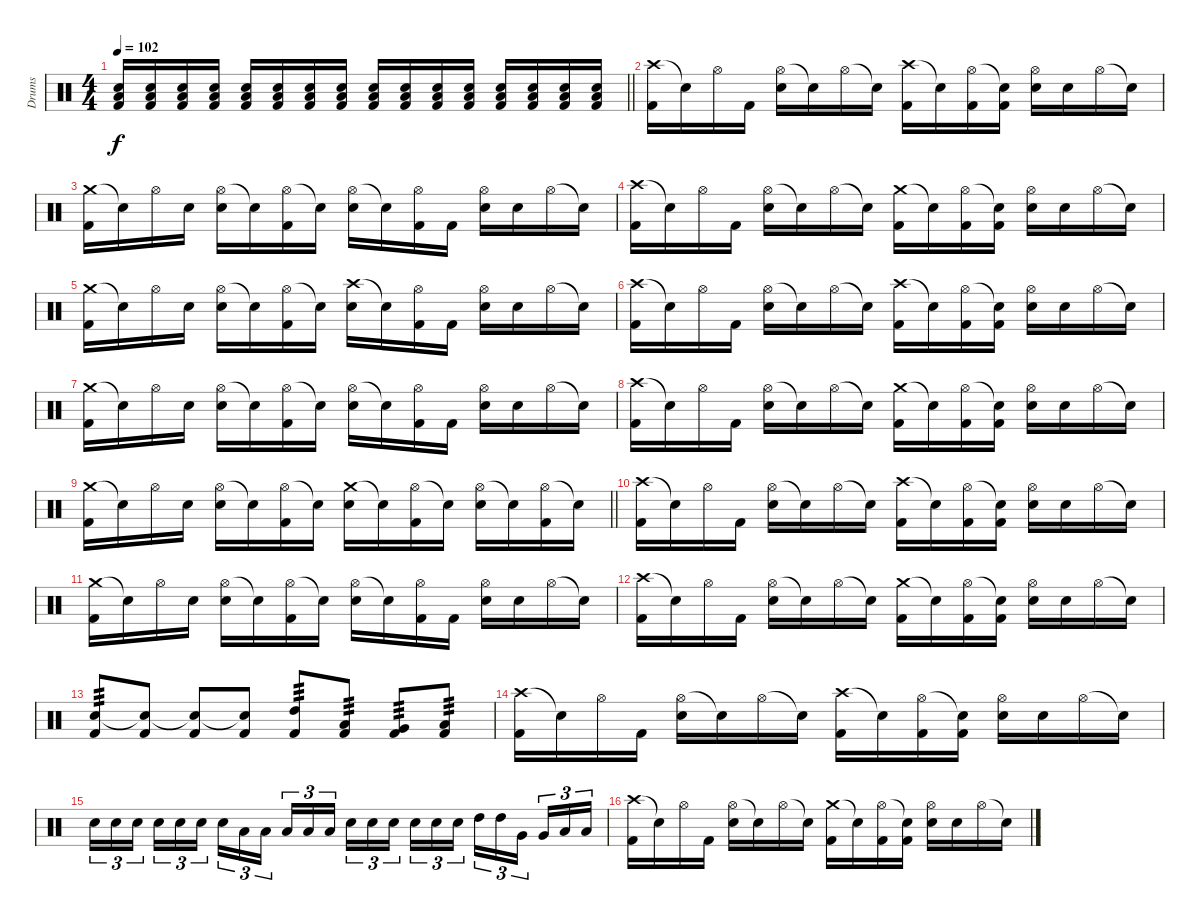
\track ("Drums" "Drums") {instrument percussion}
\staff {score}
\articulation defaults
\ts (4 4)
\tempo 102
\clef neutral
\barLineRight lightlight
\ks c
("Electric Snare (hit)" "Low Floor Tom (hit)" "Kick (hit) 2").16{dy f} ("Electric Snare (hit)" "Low Floor Tom (hit)" "Kick (hit) 2").16 ("Electric Snare (hit)" "Low Floor Tom (hit)" "Kick (hit) 2").16 ("Electric Snare (hit)" "Low Floor Tom (hit)" "Kick (hit) 2").16 ("Electric Snare (hit)" "Low Floor Tom (hit)" "Kick (hit) 2").16 ("Electric Snare (hit)" "Low Floor Tom (hit)" "Kick (hit) 2").16 ("Electric Snare (hit)" "Low Floor Tom (hit)" "Kick (hit) 2").16 ("Electric Snare (hit)" "Low Floor Tom (hit)" "Kick (hit) 2").16 ("Electric Snare (hit)" "Low Floor Tom (hit)" "Kick (hit) 2").16 ("Electric Snare (hit)" "Low Floor Tom (hit)" "Kick (hit) 2").16 ("Electric Snare (hit)" "Low Floor Tom (hit)" "Kick (hit) 2").16 ("Electric Snare (hit)" "Low Floor Tom (hit)" "Kick (hit) 2").16 ("Electric Snare (hit)" "Low Floor Tom (hit)" "Kick (hit) 2").16 ("Electric Snare (hit)" "Low Floor Tom (hit)" "Kick (hit) 2").16 ("Electric Snare (hit)" "Low Floor Tom (hit)" "Kick (hit) 2").16 ("Electric Snare (hit)" "Low Floor Tom (hit)" "Kick (hit) 2").16 |
("Crash high (hit)" "Kick (hit) 2").16 "Snare (hit)"{t}.16 "Hi-Hat (open)".16 "Kick (hit) 2".16 ("Hi-Hat (open)" "Electric Snare (hit)").16 "Snare (hit)"{t}.16 "Hi-Hat (open)".16 "Snare (hit)"{t}.16 ("Crash high (hit)" "Kick (hit) 2").16 "Snare (hit)"{t}.16 ("Hi-Hat (open)" "Kick (hit) 2").16 ("Snare (hit)"{t} "Kick (hit) 2").16 ("Hi-Hat (open)" "Electric Snare (hit)").16 "Electric Snare (hit)".16 "Hi-Hat (open)".16 "Snare (hit)"{t}.16 |
("Crash medium (hit)" "Kick (hit) 2").16 "Snare (hit)"{t}.16 "Hi-Hat (open)".16 "Electric Snare (hit)".16 ("Hi-Hat (open)" "Electric Snare (hit)").16 "Snare (hit)"{t}.16 ("Hi-Hat (open)" "Kick (hit) 2").16 "Snare (hit)"{t}.16 ("Hi-Hat (open)" "Electric Snare (hit)").16 "Snare (hit)"{t}.16 ("Hi-Hat (open)" "Kick (hit) 2").16 "Kick (hit) 2".16 ("Hi-Hat (open)" "Electric Snare (hit)").16 "Electric Snare (hit)".16 "Hi-Hat (open)".16 "Snare (hit)"{t}.16 |
("Crash high (hit)" "Kick (hit) 2").16 "Snare (hit)"{t}.16 "Hi-Hat (open)".16 "Kick (hit) 2".16 ("Hi-Hat (open)" "Electric Snare (hit)").16 "Snare (hit)"{t}.16 "Hi-Hat (open)".16 "Snare (hit)"{t}.16 ("Crash medium (hit)" "Kick (hit) 2").16 "Snare (hit)"{t}.16 ("Hi-Hat (open)" "Kick (hit) 2").16 ("Snare (hit)"{t} "Kick (hit) 2").16 ("Hi-Hat (open)" "Electric Snare (hit)").16 "Electric Snare (hit)".16 "Hi-Hat (open)".16 "Snare (hit)"{t}.16 |
("Crash medium (hit)" "Kick (hit) 2").16 "Snare (hit)"{t}.16 "Hi-Hat (open)".16 "Electric Snare (hit)".16 ("Hi-Hat (open)" "Electric Snare (hit)").16 "Snare (hit)"{t}.16 ("Hi-Hat (open)" "Kick (hit) 2").16 "Snare (hit)"{t}.16 ("Crash high (hit)" "Electric Snare (hit)").16 "Snare (hit)"{t}.16 ("Hi-Hat (open)" "Kick (hit) 2").16 "Kick (hit) 2".16 ("Hi-Hat (open)" "Electric Snare (hit)").16 "Electric Snare (hit)".16 "Hi-Hat (open)".16 "Snare (hit)"{t}.16 |
("Crash high (hit)" "Kick (hit) 2").16 "Snare (hit)"{t}.16 "Hi-Hat (open)".16 "Kick (hit) 2".16 ("Hi-Hat (open)" "Electric Snare (hit)").16 "Snare (hit)"{t}.16 "Hi-Hat (open)".16 "Snare (hit)"{t}.16 ("Crash high (hit)" "Kick (hit) 2").16 "Snare (hit)"{t}.16 ("Hi-Hat (open)" "Kick (hit) 2").16 ("Snare (hit)"{t} "Kick (hit) 2").16 ("Hi-Hat (open)" "Electric Snare (hit)").16 "Electric Snare (hit)".16 "Hi-Hat (open)".16 "Snare (hit)"{t}.16 |
("Crash medium (hit)" "Kick (hit) 2").16 "Snare (hit)"{t}.16 "Hi-Hat (open)".16 "Electric Snare (hit)".16 ("Hi-Hat (open)" "Electric Snare (hit)").16 "Snare (hit)"{t}.16 ("Hi-Hat (open)" "Kick (hit) 2").16 "Snare (hit)"{t}.16 ("Hi-Hat (open)" "Electric Snare (hit)").16 "Snare (hit)"{t}.16 ("Hi-Hat (open)" "Kick (hit) 2").16 "Kick (hit) 2".16 ("Hi-Hat (open)" "Electric Snare (hit)").16 "Electric Snare (hit)".16 "Hi-Hat (open)".16 "Snare (hit)"{t}.16 |
("Crash high (hit)" "Kick (hit) 2").16 "Snare (hit)"{t}.16 "Hi-Hat (open)".16 "Kick (hit) 2".16 ("Hi-Hat (open)" "Electric Snare (hit)").16 "Snare (hit)"{t}.16 "Hi-Hat (open)".16 "Snare (hit)"{t}.16 ("Crash medium (hit)" "Kick (hit) 2").16 "Snare (hit)"{t}.16 ("Hi-Hat (open)" "Kick (hit) 2").16 ("Snare (hit)"{t} "Kick (hit) 2").16 ("Hi-Hat (open)" "Electric Snare (hit)").16 "Electric Snare (hit)".16 "Hi-Hat (open)".16 "Snare (hit)"{t}.16 |
\barLineRight lightlight
("Crash medium (hit)" "Kick (hit) 2").16 "Snare (hit)"{t}.16 "Hi-Hat (open)".16 "Electric Snare (hit)".16 ("Hi-Hat (open)" "Electric Snare (hit)").16 "Snare (hit)"{t}.16 ("Hi-Hat (open)" "Kick (hit) 2").16 "Snare (hit)"{t}.16 ("Crash medium (hit)" "Electric Snare (hit)").16 "Snare (hit)"{t}.16 ("Hi-Hat (open)" "Kick (hit) 2").16 "Snare (hit)"{t}.16 ("Hi-Hat (open)" "Electric Snare (hit)").16 "Snare (hit)"{t}.16 ("Hi-Hat (open)" "Kick (hit) 2").16 "Snare (hit)"{t}.16 |
("Crash high (hit)" "Kick (hit) 2").16 "Snare (hit)"{t}.16 "Hi-Hat (open)".16 "Kick (hit) 2".16 ("Hi-Hat (open)" "Electric Snare (hit)").16 "Snare (hit)"{t}.16 "Hi-Hat (open)".16 "Snare (hit)"{t}.16 ("Crash high (hit)" "Kick (hit) 2").16 "Snare (hit)"{t}.16 ("Hi-Hat (open)" "Kick (hit) 2").16 ("Snare (hit)"{t} "Kick (hit) 2").16 ("Hi-Hat (open)" "Electric Snare (hit)").16 "Electric Snare (hit)".16 "Hi-Hat (open)".16 "Snare (hit)"{t}.16 |
("Crash medium (hit)" "Kick (hit) 2").16 "Snare (hit)"{t}.16 "Hi-Hat (open)".16 "Electric Snare (hit)".16 ("Hi-Hat (open)" "Electric Snare (hit)").16 "Snare (hit)"{t}.16 ("Hi-Hat (open)" "Kick (hit) 2").16 "Snare (hit)"{t}.16 ("Hi-Hat (open)" "Electric Snare (hit)").16 "Snare (hit)"{t}.16 ("Hi-Hat (open)" "Kick (hit) 2").16 "Kick (hit) 2".16 ("Hi-Hat (open)" "Electric Snare (hit)").16 "Electric Snare (hit)".16 "Hi-Hat (open)".16 "Snare (hit)"{t}.16 |
("Crash high (hit)" "Kick (hit) 2").16 "Snare (hit)"{t}.16 "Hi-Hat (open)".16 "Kick (hit) 2".16 ("Hi-Hat (open)" "Electric Snare (hit)").16 "Snare (hit)"{t}.16 "Hi-Hat (open)".16 "Snare (hit)"{t}.16 ("Crash medium (hit)" "Kick (hit) 2").16 "Snare (hit)"{t}.16 ("Hi-Hat (open)" "Kick (hit) 2").16 ("Snare (hit)"{t} "Kick (hit) 2").16 ("Hi-Hat (open)" "Electric Snare (hit)").16 "Electric Snare (hit)".16 "Hi-Hat (open)".16 "Snare (hit)"{t}.16 |
("Electric Snare (hit)" "Kick (hit) 2").8{tp 3} ("Snare (hit)"{t} "Kick (hit) 2").8 ("Snare (hit)"{t} "Kick (hit) 2").8 ("Snare (hit)"{t} "Kick (hit) 2").8 ("High Tom (hit)" "Kick (hit) 2").8{tp 3} ("Low Tom (hit)" "Kick (hit) 2").8{tp 3} ("Very Low Tom (hit)" "Kick (hit) 2").8{tp 3} ("Low Floor Tom (hit)" "Kick (hit) 2").8{tp 3} |
("Crash high (hit)" "Kick (hit) 2").16 "Snare (hit)"{t}.16 "Hi-Hat (open)".16 "Kick (hit) 2".16 ("Hi-Hat (open)" "Electric Snare (hit)").16 "Snare (hit)"{t}.16 "Hi-Hat (open)".16 "Snare (hit)"{t}.16 ("Crash high (hit)" "Kick (hit) 2").16 "Snare (hit)"{t}.16 ("Hi-Hat (open)" "Kick (hit) 2").16 ("Snare (hit)"{t} "Kick (hit) 2").16 ("Hi-Hat (open)" "Electric Snare (hit)").16 "Electric Snare (hit)".16 "Hi-Hat (open)".16 "Snare (hit)"{t}.16 |
"Electric Snare (hit)".16{tu (3 2)} "Electric Snare (hit)".16{tu (3 2)} "Electric Snare (hit)".16{tu (3 2) beam splitsecondary} "Electric Snare (hit)".16{tu (3 2)} "Electric Snare (hit)".16{tu (3 2)} "Electric Snare (hit)".16{tu (3 2)} "Electric Snare (hit)".16{tu (3 2)} "Low Tom (hit)".16{tu (3 2)} "Low Tom (hit)".16{tu (3 2) beam splitsecondary} "Low Tom (hit)".16{tu (3 2)} "Low Tom (hit)".16{tu (3 2)} "Low Tom (hit)".16{tu (3 2)} "Electric Snare (hit)".16{tu (3 2)} "Electric Snare (hit)".16{tu (3 2)} "Electric Snare (hit)".16{tu (3 2) beam splitsecondary} "Electric Snare (hit)".16{tu (3 2)} "Electric Snare (hit)".16{tu (3 2)} "Electric Snare (hit)".16{tu (3 2)} "High Tom (hit)".16{tu (3 2)} "High Tom (hit)".16{tu (3 2)} "Very Low Tom (hit)".16{tu (3 2) beam splitsecondary} "Very Low Tom (hit)".16{tu (3 2)} "Low Floor Tom (hit)".16{tu (3 2)} "Low Floor Tom (hit)".16{tu (3 2)} |
("Crash high (hit)" "Kick (hit) 2").16 "Snare (hit)"{t}.16 "Hi-Hat (open)".16 "Kick (hit) 2".16 ("Hi-Hat (open)" "Electric Snare (hit)").16 "Snare (hit)"{t}.16 "Hi-Hat (open)".16 "Snare (hit)"{t}.16 ("Crash medium (hit)" "Kick (hit) 2").16 "Snare (hit)"{t}.16 ("Hi-Hat (open)" "Kick (hit) 2").16 ("Snare (hit)"{t} "Kick (hit) 2").16 ("Hi-Hat (open)" "Electric Snare (hit)").16 "Electric Snare (hit)".16 "Hi-Hat (open)".16 "Snare (hit)"{t}.16
